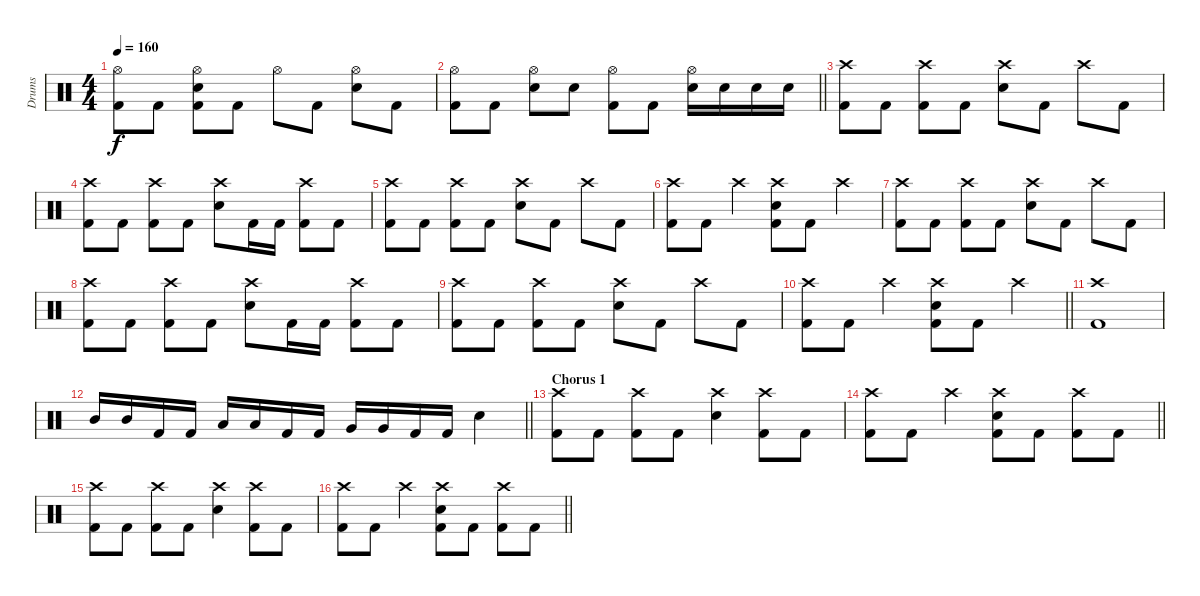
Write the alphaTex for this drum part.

\track ("Drums" "Drums") {instrument percussion}
\staff {score}
\articulation defaults
\ts (4 4)
\tempo 160
\clef neutral
\ks c
("Hi-Hat (open)" "Kick (hit) 2").8{dy f} "Kick (hit) 2".8 ("Hi-Hat (open)" "Electric Snare (hit)" "Kick (hit) 2").8 "Kick (hit) 2".8 "Hi-Hat (open)".8 "Kick (hit) 2".8 ("Hi-Hat (open)" "Electric Snare (hit)").8 "Kick (hit) 2".8 |
\barLineRight lightlight
("Hi-Hat (open)" "Kick (hit) 2").8 "Kick (hit) 2".8 ("Hi-Hat (open)" "Electric Snare (hit)").8 "Electric Snare (hit)".8 ("Hi-Hat (open)" "Kick (hit) 2").8 "Kick (hit) 2".8 ("Hi-Hat (open)" "Electric Snare (hit)").16 "Electric Snare (hit)".16 "Electric Snare (hit)".16 "Electric Snare (hit)".16 |
\section ("" "")
("Crash high (hit)" "Kick (hit) 2").8 "Kick (hit) 2".8 ("Crash high (hit)" "Kick (hit) 2").8 "Kick (hit) 2".8 ("Crash high (hit)" "Electric Snare (hit)").8 "Kick (hit) 2".8 "Crash high (hit)".8 "Kick (hit) 2".8 |
("Crash high (hit)" "Kick (hit) 2").8 "Kick (hit) 2".8 ("Crash high (hit)" "Kick (hit) 2").8 "Kick (hit) 2".8 ("Crash high (hit)" "Electric Snare (hit)").8 "Kick (hit) 2".16 "Kick (hit) 2".16 ("Crash high (hit)" "Kick (hit) 2").8 "Kick (hit) 2".8 |
("Crash high (hit)" "Kick (hit) 2").8 "Kick (hit) 2".8 ("Crash high (hit)" "Kick (hit) 2").8 "Kick (hit) 2".8 ("Crash high (hit)" "Electric Snare (hit)").8 "Kick (hit) 2".8 "Crash high (hit)".8 "Kick (hit) 2".8 |
("Crash high (hit)" "Kick (hit) 2").8 "Kick (hit) 2".8 "Crash high (hit)".4 ("Crash high (hit)" "Electric Snare (hit)" "Kick (hit) 2").8 "Kick (hit) 2".8 "Crash high (hit)".4 |
("Crash high (hit)" "Kick (hit) 2").8 "Kick (hit) 2".8 ("Crash high (hit)" "Kick (hit) 2").8 "Kick (hit) 2".8 ("Crash high (hit)" "Electric Snare (hit)").8 "Kick (hit) 2".8 "Crash high (hit)".8 "Kick (hit) 2".8 |
("Crash high (hit)" "Kick (hit) 2").8 "Kick (hit) 2".8 ("Crash high (hit)" "Kick (hit) 2").8 "Kick (hit) 2".8 ("Crash high (hit)" "Electric Snare (hit)").8 "Kick (hit) 2".16 "Kick (hit) 2".16 ("Crash high (hit)" "Kick (hit) 2").8 "Kick (hit) 2".8 |
("Crash high (hit)" "Kick (hit) 2").8 "Kick (hit) 2".8 ("Crash high (hit)" "Kick (hit) 2").8 "Kick (hit) 2".8 ("Crash high (hit)" "Electric Snare (hit)").8 "Kick (hit) 2".8 "Crash high (hit)".8 "Kick (hit) 2".8 |
\barLineRight lightlight
("Crash high (hit)" "Kick (hit) 2").8 "Kick (hit) 2".8 "Crash high (hit)".4 ("Crash high (hit)" "Electric Snare (hit)" "Kick (hit) 2").8 "Kick (hit) 2".8 "Crash high (hit)".4 |
\section ("" "")
("Crash high (hit)" "Kick (hit) 2").1 |
\barLineRight lightlight "Mid Tom (hit)".16 "Mid Tom (hit)".16 "Kick (hit) 2".16 "Kick (hit) 2".16 "Low Tom (hit)".16 "Low Tom (hit)".16 "Kick (hit) 2".16 "Kick (hit) 2".16 "Very Low Tom (hit)".16 "Very Low Tom (hit)".16 "Kick (hit) 2".16 "Kick (hit) 2".16 "Electric Snare (hit)".4
|
\section ("" "Chorus 1")
("Crash high (hit)" "Kick (hit) 2").8 "Kick (hit) 2".8 ("Crash high (hit)" "Kick (hit) 2").8 "Kick (hit) 2".8 ("Crash high (hit)" "Electric Snare (hit)").4 ("Crash high (hit)" "Kick (hit) 2").8 "Kick (hit) 2".8 |
\barLineRight lightlight
("Crash high (hit)" "Kick (hit) 2").8 "Kick (hit) 2".8 "Crash high (hit)".4 ("Crash high (hit)" "Electric Snare (hit)" "Kick (hit) 2").8 "Kick (hit) 2".8 ("Crash high (hit)" "Kick (hit) 2").8 "Kick (hit) 2".8 |
("Crash high (hit)" "Kick (hit) 2").8 "Kick (hit) 2".8 ("Crash high (hit)" "Kick (hit) 2").8 "Kick (hit) 2".8 ("Crash high (hit)" "Electric Snare (hit)").4 ("Crash high (hit)" "Kick (hit) 2").8 "Kick (hit) 2".8 |
\barLineRight lightlight
("Crash high (hit)" "Kick (hit) 2").8 "Kick (hit) 2".8 "Crash high (hit)".4 ("Crash high (hit)" "Electric Snare (hit)" "Kick (hit) 2").8 "Kick (hit) 2".8 ("Crash high (hit)" "Kick (hit) 2").8 "Kick (hit) 2".8
